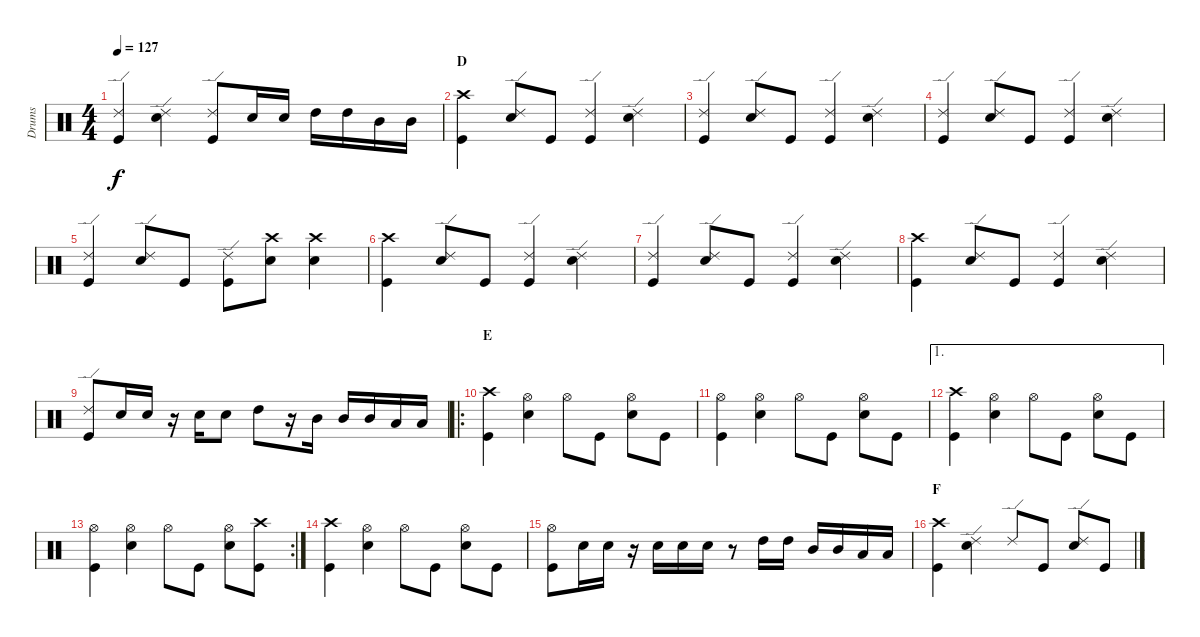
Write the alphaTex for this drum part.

\track ("Drums" "Drums") {instrument percussion}
\staff {score}
\articulation defaults
\ts (4 4)
\tempo 127
\clef neutral
\ks c
("Ride (edge) 2" "Kick (hit)").4{dy f} ("Ride (edge) 2" "Snare (hit) 2").4 ("Ride (edge) 2" "Kick (hit)").8 "Snare (hit) 2".16 "Snare (hit) 2".16 "High Tom (hit)".16 "High Tom (hit)".16 "Mid Tom (hit)".16 "Mid Tom (hit)".16 |
\section ("" "D")
("Crash high (hit)" "Kick (hit)").4 ("Ride (edge) 2" "Snare (hit) 2").8 "Kick (hit)".8 ("Ride (edge) 2" "Kick (hit)").4 ("Ride (edge) 2" "Snare (hit) 2").4 |
("Ride (edge) 2" "Kick (hit)").4 ("Ride (edge) 2" "Snare (hit) 2").8 "Kick (hit)".8 ("Ride (edge) 2" "Kick (hit)").4 ("Ride (edge) 2" "Snare (hit) 2").4 |
("Ride (edge) 2" "Kick (hit)").4 ("Ride (edge) 2" "Snare (hit) 2").8 "Kick (hit)".8 ("Ride (edge) 2" "Kick (hit)").4 ("Ride (edge) 2" "Snare (hit) 2").4 |
("Ride (edge) 2" "Kick (hit)").4 ("Ride (edge) 2" "Snare (hit) 2").8 "Kick (hit)".8 ("Ride (edge) 2" "Kick (hit)").8 ("Crash high (hit)" "Snare (hit) 2").8 ("Crash high (hit)" "Snare (hit) 2").4 |
("Crash high (hit)" "Kick (hit)").4 ("Ride (edge) 2" "Snare (hit) 2").8 "Kick (hit)".8 ("Ride (edge) 2" "Kick (hit)").4 ("Ride (edge) 2" "Snare (hit) 2").4 |
("Ride (edge) 2" "Kick (hit)").4 ("Ride (edge) 2" "Snare (hit) 2").8 "Kick (hit)".8 ("Ride (edge) 2" "Kick (hit)").4 ("Ride (edge) 2" "Snare (hit) 2").4 |
("Crash high (hit)" "Kick (hit)").4 ("Ride (edge) 2" "Snare (hit) 2").8 "Kick (hit)".8 ("Ride (edge) 2" "Kick (hit)").4 ("Ride (edge) 2" "Snare (hit) 2").4 |
("Ride (edge) 2" "Kick (hit)").8 "Snare (hit) 2".16 "Snare (hit) 2".16 r.16 "Snare (hit) 2".16 "Snare (hit) 2".8 "High Tom (hit)".8 r.16 "Mid Tom (hit)".16 "Mid Tom (hit)".16 "Mid Tom (hit)".16 "Low Tom (hit)".16 "Low Tom (hit)".16 |
\ro
\section ("" "E")
("Crash high (hit)" "Kick (hit)").4 ("Hi-Hat (open)" "Snare (hit) 2").4 "Hi-Hat (open)".8 "Kick (hit)".8 ("Hi-Hat (open)" "Snare (hit) 2").8 "Kick (hit)".8 |
("Hi-Hat (open)" "Kick (hit)").4 ("Hi-Hat (open)" "Snare (hit) 2").4 "Hi-Hat (open)".8 "Kick (hit)".8 ("Hi-Hat (open)" "Snare (hit) 2").8 "Kick (hit)".8 |
\ae 1
("Crash high (hit)" "Kick (hit)").4 ("Hi-Hat (open)" "Snare (hit) 2").4 "Hi-Hat (open)".8 "Kick (hit)".8 ("Hi-Hat (open)" "Snare (hit) 2").8 "Kick (hit)".8 |
\rc 2
("Hi-Hat (open)" "Kick (hit)").4 ("Hi-Hat (open)" "Snare (hit) 2").4 "Hi-Hat (open)".8 "Kick (hit)".8 ("Hi-Hat (open)" "Snare (hit) 2").8 ("Crash high (hit)" "Kick (hit)").8 |
("Crash high (hit)" "Kick (hit)").4 ("Hi-Hat (open)" "Snare (hit) 2").4 "Hi-Hat (open)".8 "Kick (hit)".8 ("Hi-Hat (open)" "Snare (hit) 2").8 "Kick (hit)".8 |
("Hi-Hat (open)" "Kick (hit)").8 "Snare (hit) 2".16 "Snare (hit) 2".16 r.16 "Snare (hit) 2".16 "Snare (hit) 2".16 "Snare (hit) 2".16 r.8 "High Tom (hit)".16 "High Tom (hit)".16 "Mid Tom (hit)".16 "Mid Tom (hit)".16 "Low Tom (hit)".16 "Low Tom (hit)".16 |
\section ("" "F")
("Crash high (hit)" "Kick (hit)").4 ("Ride (edge) 2" "Snare (hit) 2").4 "Ride (edge) 2".8 "Kick (hit)".8 ("Ride (edge) 2" "Snare (hit) 2").8 "Kick (hit)".8
